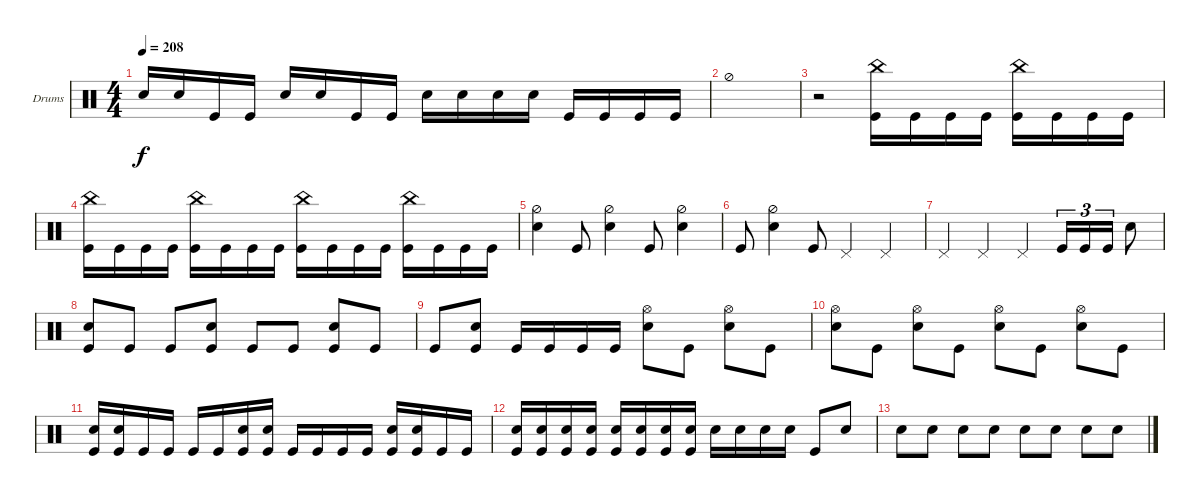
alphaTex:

\defaultSystemsLayout 4
\bracketExtendMode groupsimilarinstruments
\firstSystemTrackNameOrientation horizontal
\otherSystemsTrackNameOrientation horizontal
\track ("Drumkit" "Drums") {instrument percussion}
\staff {score}
\articulation defaults
\ts (4 4)
\tempo 208
\clef neutral
\ks c "Snare (hit) 2".16{dy f} "Snare (hit) 2".16 "Kick (hit)".16 "Kick (hit)".16 "Snare (hit) 2".16 "Snare (hit) 2".16 "Kick (hit)".16 "Kick (hit)".16 "Snare (hit) 2".16 "Snare (hit) 2".16 "Snare (hit) 2".16 "Snare (hit) 2".16 "Kick (hit)".16 "Kick (hit)".16 "Kick (hit)".16 "Kick (hit)".16
|
\scale
0.502222 "Hi-Hat (half)".1 |
\scale
0.248889 r.2 ("Kick (hit)" "China (hit)").16 "Kick (hit)".16 "Kick (hit)".16 "Kick (hit)".16 ("Kick (hit)" "China (hit)").16 "Kick (hit)".16 "Kick (hit)".16 "Kick (hit)".16 |
\scale
0.248889 ("Kick (hit)" "China (hit)").16 "Kick (hit)".16 "Kick (hit)".16 "Kick (hit)".16 ("Kick (hit)" "China (hit)").16 "Kick (hit)".16 "Kick (hit)".16 "Kick (hit)".16 ("Kick (hit)" "China (hit)").16 "Kick (hit)".16 "Kick (hit)".16 "Kick (hit)".16 ("Kick (hit)" "China (hit)").16 "Kick (hit)".16 "Kick (hit)".16 "Kick (hit)".16 |
\scale
0.333333 ("Hi-Hat (half)" "Snare (hit) 2").4 "Kick (hit)".8 ("Hi-Hat (half)" "Snare (hit) 2").4 "Kick (hit)".8 ("Hi-Hat (half)" "Snare (hit) 2").4 |
\scale
0.333333 "Kick (hit)".8 ("Hi-Hat (half)" "Snare (hit) 2").4 "Kick (hit)".8 "Pedal Hi-Hat (hit)".4 "Pedal Hi-Hat (hit)".4 |
\scale
0.333333 "Pedal Hi-Hat (hit)".4 "Pedal Hi-Hat (hit)".4 "Pedal Hi-Hat (hit)".4 "Kick (hit)".16{tu (3 2)} "Kick (hit)".16{tu (3 2)} "Kick (hit)".16{tu (3 2)} "Snare (hit) 2".8 |
\scale
0.333333 ("Kick (hit)" "Snare (hit) 2").8 "Kick (hit)".8 "Kick (hit)".8 ("Kick (hit)" "Snare (hit) 2").8 "Kick (hit)".8 "Kick (hit)".8 ("Kick (hit)" "Snare (hit) 2").8 "Kick (hit)".8 |
\scale
0.333333 "Kick (hit)".8 ("Kick (hit)" "Snare (hit) 2").8 "Kick (hit)".16 "Kick (hit)".16 "Kick (hit)".16 "Kick (hit)".16 ("Hi-Hat (open)" "Snare (hit) 2").8 "Kick (hit)".8 ("Hi-Hat (open)" "Snare (hit) 2").8 "Kick (hit)".8 |
\scale
0.333333 ("Hi-Hat (open)" "Snare (hit) 2").8 "Kick (hit)".8 ("Hi-Hat (open)" "Snare (hit) 2").8 "Kick (hit)".8 ("Hi-Hat (open)" "Snare (hit) 2").8 "Kick (hit)".8 ("Hi-Hat (open)" "Snare (hit) 2").8 "Kick (hit)".8 |
\scale
0.333333 ("Kick (hit)" "Snare (hit) 2").16 ("Kick (hit)" "Snare (hit) 2").16 "Kick (hit)".16 "Kick (hit)".16 "Kick (hit)".16 "Kick (hit)".16 ("Kick (hit)" "Snare (hit) 2").16 ("Kick (hit)" "Snare (hit) 2").16 "Kick (hit)".16 "Kick (hit)".16 "Kick (hit)".16 "Kick (hit)".16 ("Kick (hit)" "Snare (hit) 2").16 ("Kick (hit)" "Snare (hit) 2").16 "Kick (hit)".16 "Kick (hit)".16 |
\scale
0.333333 ("Kick (hit)" "Snare (hit) 2").16 ("Kick (hit)" "Snare (hit) 2").16 ("Kick (hit)" "Snare (hit) 2").16 ("Kick (hit)" "Snare (hit) 2").16 ("Kick (hit)" "Snare (hit) 2").16 ("Kick (hit)" "Snare (hit) 2").16 ("Kick (hit)" "Snare (hit) 2").16 ("Kick (hit)" "Snare (hit) 2").16 "Snare (hit) 2".16 "Snare (hit) 2".16 "Snare (hit) 2".16 "Snare (hit) 2".16 "Kick (hit)".8 "Snare (hit) 2".8 |
\scale
0.333333 "Snare (hit) 2".8 "Snare (hit) 2".8 "Snare (hit) 2".8 "Snare (hit) 2".8 "Snare (hit) 2".8 "Snare (hit) 2".8 "Snare (hit) 2".8 "Snare (hit) 2".8 |
\scale
0.333333 |
\scale
0.333333 |
\scale
0.333333
